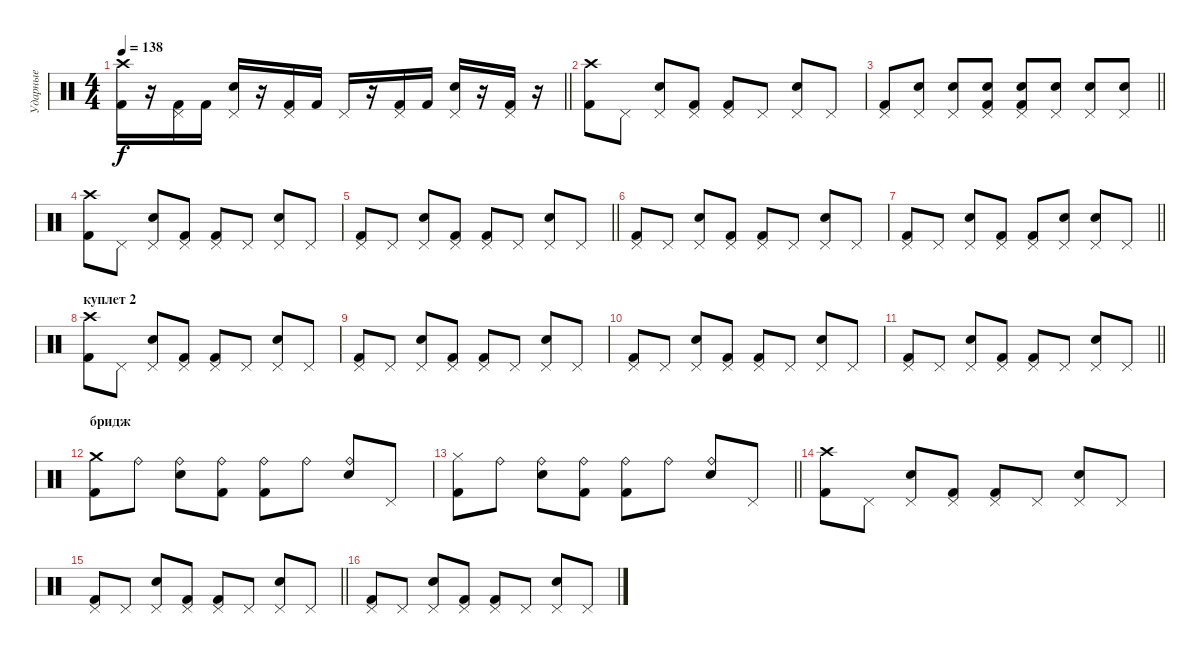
\track ("Ударные" "Ударные") {instrument percussion}
\staff {score}
\articulation defaults
\ts (4 4)
\tempo 138
\clef neutral
\barLineRight lightlight
\ks c
("Crash high (hit)" "Kick (hit) 2").16{dy f} r.16 ("Pedal Hi-Hat (hit)" "Kick (hit) 2").16 "Kick (hit) 2".16 ("Pedal Hi-Hat (hit)" "Electric Snare (hit)").16 r.16 ("Pedal Hi-Hat (hit)" "Kick (hit) 2").16 "Kick (hit) 2".16 "Pedal Hi-Hat (hit)".16 r.16 ("Pedal Hi-Hat (hit)" "Kick (hit) 2").16 "Kick (hit) 2".16 ("Pedal Hi-Hat (hit)" "Electric Snare (hit)").16 r.16 ("Pedal Hi-Hat (hit)" "Kick (hit) 2").16 r.16 |
("Crash high (hit)" "Kick (hit) 2").8 "Pedal Hi-Hat (hit)".8 ("Pedal Hi-Hat (hit)" "Electric Snare (hit)").8 ("Pedal Hi-Hat (hit)" "Kick (hit) 2").8 ("Pedal Hi-Hat (hit)" "Kick (hit) 2").8 "Pedal Hi-Hat (hit)".8 ("Pedal Hi-Hat (hit)" "Electric Snare (hit)").8 "Pedal Hi-Hat (hit)".8 |
\barLineRight lightlight
("Pedal Hi-Hat (hit)" "Kick (hit) 2").8 ("Pedal Hi-Hat (hit)" "Electric Snare (hit)").8 ("Pedal Hi-Hat (hit)" "Electric Snare (hit)").8 ("Pedal Hi-Hat (hit)" "Electric Snare (hit)" "Kick (hit) 2").8 ("Pedal Hi-Hat (hit)" "Electric Snare (hit)" "Kick (hit) 2").8 ("Pedal Hi-Hat (hit)" "Electric Snare (hit)").8 ("Pedal Hi-Hat (hit)" "Electric Snare (hit)").8 ("Pedal Hi-Hat (hit)" "Electric Snare (hit)").8 |
("Crash high (hit)" "Kick (hit) 2").8 "Pedal Hi-Hat (hit)".8 ("Pedal Hi-Hat (hit)" "Electric Snare (hit)").8 ("Pedal Hi-Hat (hit)" "Kick (hit) 2").8 ("Pedal Hi-Hat (hit)" "Kick (hit) 2").8 "Pedal Hi-Hat (hit)".8 ("Pedal Hi-Hat (hit)" "Electric Snare (hit)").8 "Pedal Hi-Hat (hit)".8 |
\barLineRight lightlight
("Pedal Hi-Hat (hit)" "Kick (hit) 2").8 "Pedal Hi-Hat (hit)".8 ("Pedal Hi-Hat (hit)" "Electric Snare (hit)").8 ("Pedal Hi-Hat (hit)" "Kick (hit) 2").8 ("Pedal Hi-Hat (hit)" "Kick (hit) 2").8 "Pedal Hi-Hat (hit)".8 ("Pedal Hi-Hat (hit)" "Electric Snare (hit)").8 "Pedal Hi-Hat (hit)".8 |
("Pedal Hi-Hat (hit)" "Kick (hit) 2").8 "Pedal Hi-Hat (hit)".8 ("Pedal Hi-Hat (hit)" "Electric Snare (hit)").8 ("Pedal Hi-Hat (hit)" "Kick (hit) 2").8 ("Pedal Hi-Hat (hit)" "Kick (hit) 2").8 "Pedal Hi-Hat (hit)".8 ("Pedal Hi-Hat (hit)" "Electric Snare (hit)").8 "Pedal Hi-Hat (hit)".8 |
\barLineRight lightlight
("Pedal Hi-Hat (hit)" "Kick (hit) 2").8 "Pedal Hi-Hat (hit)".8 ("Pedal Hi-Hat (hit)" "Electric Snare (hit)").8 ("Pedal Hi-Hat (hit)" "Kick (hit) 2").8 ("Pedal Hi-Hat (hit)" "Kick (hit) 2").8 ("Pedal Hi-Hat (hit)" "Electric Snare (hit)").8 ("Pedal Hi-Hat (hit)" "Electric Snare (hit)").8 "Pedal Hi-Hat (hit)".8 |
\section ("" "куплет 2")
("Crash high (hit)" "Kick (hit) 2").8 "Pedal Hi-Hat (hit)".8 ("Pedal Hi-Hat (hit)" "Electric Snare (hit)").8 ("Pedal Hi-Hat (hit)" "Kick (hit) 2").8 ("Pedal Hi-Hat (hit)" "Kick (hit) 2").8 "Pedal Hi-Hat (hit)".8 ("Pedal Hi-Hat (hit)" "Electric Snare (hit)").8 "Pedal Hi-Hat (hit)".8 |
("Pedal Hi-Hat (hit)" "Kick (hit) 2").8 "Pedal Hi-Hat (hit)".8 ("Pedal Hi-Hat (hit)" "Electric Snare (hit)").8 ("Pedal Hi-Hat (hit)" "Kick (hit) 2").8 ("Pedal Hi-Hat (hit)" "Kick (hit) 2").8 "Pedal Hi-Hat (hit)".8 ("Pedal Hi-Hat (hit)" "Electric Snare (hit)").8 "Pedal Hi-Hat (hit)".8 |
("Pedal Hi-Hat (hit)" "Kick (hit) 2").8 "Pedal Hi-Hat (hit)".8 ("Pedal Hi-Hat (hit)" "Electric Snare (hit)").8 ("Pedal Hi-Hat (hit)" "Kick (hit) 2").8 ("Pedal Hi-Hat (hit)" "Kick (hit) 2").8 "Pedal Hi-Hat (hit)".8 ("Pedal Hi-Hat (hit)" "Electric Snare (hit)").8 "Pedal Hi-Hat (hit)".8 |
\barLineRight lightlight
("Pedal Hi-Hat (hit)" "Kick (hit) 2").8 "Pedal Hi-Hat (hit)".8 ("Pedal Hi-Hat (hit)" "Electric Snare (hit)").8 ("Pedal Hi-Hat (hit)" "Kick (hit) 2").8 ("Pedal Hi-Hat (hit)" "Kick (hit) 2").8 "Pedal Hi-Hat (hit)".8 ("Pedal Hi-Hat (hit)" "Electric Snare (hit)").8 "Pedal Hi-Hat (hit)".8 |
\section ("" "бридж")
("Crash medium (hit)" "Kick (hit) 2").8 "Ride (bell)".8 ("Ride (bell)" "Electric Snare (hit)").8 ("Ride (bell)" "Kick (hit) 2").8 ("Ride (bell)" "Kick (hit) 2").8 "Ride (bell)".8 ("Ride (bell)" "Electric Snare (hit)").8 "Pedal Hi-Hat (hit)".8 |
\barLineRight lightlight
("Hi-Hat (closed)" "Kick (hit) 2").8 "Ride (bell)".8 ("Ride (bell)" "Electric Snare (hit)").8 ("Ride (bell)" "Kick (hit) 2").8 ("Ride (bell)" "Kick (hit) 2").8 "Ride (bell)".8 ("Ride (bell)" "Electric Snare (hit)").8 "Pedal Hi-Hat (hit)".8 |
("Crash high (hit)" "Kick (hit) 2").8 "Pedal Hi-Hat (hit)".8 ("Pedal Hi-Hat (hit)" "Electric Snare (hit)").8 ("Pedal Hi-Hat (hit)" "Kick (hit) 2").8 ("Pedal Hi-Hat (hit)" "Kick (hit) 2").8 "Pedal Hi-Hat (hit)".8 ("Pedal Hi-Hat (hit)" "Electric Snare (hit)").8 "Pedal Hi-Hat (hit)".8 |
\barLineRight lightlight
("Pedal Hi-Hat (hit)" "Kick (hit) 2").8 "Pedal Hi-Hat (hit)".8 ("Pedal Hi-Hat (hit)" "Electric Snare (hit)").8 ("Pedal Hi-Hat (hit)" "Kick (hit) 2").8 ("Pedal Hi-Hat (hit)" "Kick (hit) 2").8 "Pedal Hi-Hat (hit)".8 ("Pedal Hi-Hat (hit)" "Electric Snare (hit)").8 "Pedal Hi-Hat (hit)".8 |
("Pedal Hi-Hat (hit)" "Kick (hit) 2").8 "Pedal Hi-Hat (hit)".8 ("Pedal Hi-Hat (hit)" "Electric Snare (hit)").8 ("Pedal Hi-Hat (hit)" "Kick (hit) 2").8 ("Pedal Hi-Hat (hit)" "Kick (hit) 2").8 "Pedal Hi-Hat (hit)".8 ("Pedal Hi-Hat (hit)" "Electric Snare (hit)").8 "Pedal Hi-Hat (hit)".8
